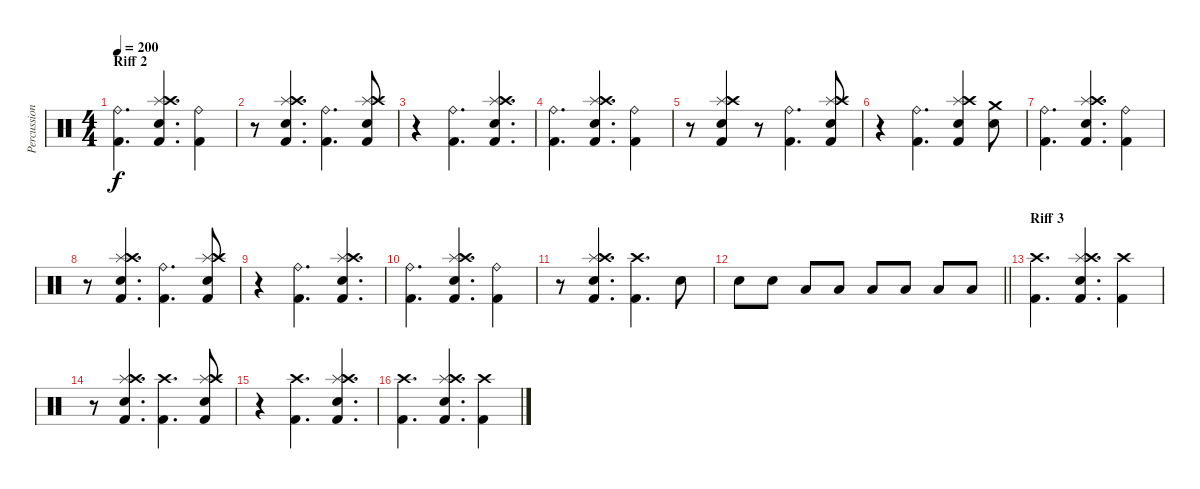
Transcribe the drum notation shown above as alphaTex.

\track ("Percussion" "Percussion") {instrument percussion}
\staff {score}
\articulation defaults
\ts (4 4)
\section ("" "Riff 2")
\tempo 200
\clef neutral
\ks c
("Ride (bell)" "Kick (hit) 2").4{d dy f} ("Splash (hit)" "Crash high (hit)" "Electric Snare (hit)" "Kick (hit) 2").4{d} ("Ride (bell)" "Kick (hit) 2").4 |
r.8 ("Splash (hit)" "Crash high (hit)" "Electric Snare (hit)" "Kick (hit) 2").4{d} ("Ride (bell)" "Kick (hit) 2").4{d} ("Splash (hit)" "Crash high (hit)" "Electric Snare (hit)" "Kick (hit) 2").8 |
r.4 ("Ride (bell)" "Kick (hit) 2").4{d} ("Splash (hit)" "Crash high (hit)" "Electric Snare (hit)" "Kick (hit) 2").4{d} |
("Ride (bell)" "Kick (hit) 2").4{d} ("Splash (hit)" "Crash high (hit)" "Electric Snare (hit)" "Kick (hit) 2").4{d} ("Ride (bell)" "Kick (hit) 2").4 |
r.8 ("Splash (hit)" "Crash high (hit)" "Electric Snare (hit)" "Kick (hit) 2").4 r.8 ("Ride (bell)" "Kick (hit) 2").4{d} ("Splash (hit)" "Crash high (hit)" "Electric Snare (hit)" "Kick (hit) 2").8 |
r.4 ("Ride (bell)" "Kick (hit) 2").4{d} ("Splash (hit)" "Crash high (hit)" "Electric Snare (hit)" "Kick (hit) 2").4 ("Crash medium (hit)" "Electric Snare (hit)").8 |
("Ride (bell)" "Kick (hit) 2").4{d} ("Splash (hit)" "Crash high (hit)" "Electric Snare (hit)" "Kick (hit) 2").4{d} ("Ride (bell)" "Kick (hit) 2").4 |
r.8 ("Splash (hit)" "Crash high (hit)" "Electric Snare (hit)" "Kick (hit) 2").4{d} ("Ride (bell)" "Kick (hit) 2").4{d} ("Splash (hit)" "Crash high (hit)" "Electric Snare (hit)" "Kick (hit) 2").8 |
r.4 ("Ride (bell)" "Kick (hit) 2").4{d} ("Splash (hit)" "Crash high (hit)" "Electric Snare (hit)" "Kick (hit) 2").4{d} |
("Ride (bell)" "Kick (hit) 2").4{d} ("Splash (hit)" "Crash high (hit)" "Electric Snare (hit)" "Kick (hit) 2").4{d} ("Ride (bell)" "Kick (hit) 2").4 |
r.8 ("Splash (hit)" "Crash high (hit)" "Electric Snare (hit)" "Kick (hit) 2").4{d} ("Crash high (hit)" "Kick (hit) 2").4{d} "Snare (hit) 2".8 |
\barLineRight lightlight "Snare (hit) 2".8 "Snare (hit) 2".8 "Low Tom (hit)".8 "Low Tom (hit)".8 "Low Tom (hit)".8 "Low Floor Tom (hit)".8 "Low Floor Tom (hit)".8 "Low Floor Tom (hit)".8
|
\section ("" "Riff 3")
("Crash high (hit)" "Kick (hit) 2").4{d} ("Splash (hit)" "Crash high (hit)" "Electric Snare (hit)" "Kick (hit) 2").4{d} ("Crash high (hit)" "Kick (hit) 2").4 |
r.8 ("Splash (hit)" "Crash high (hit)" "Electric Snare (hit)" "Kick (hit) 2").4{d} ("Crash high (hit)" "Kick (hit) 2").4{d} ("Splash (hit)" "Crash high (hit)" "Electric Snare (hit)" "Kick (hit) 2").8 |
r.4 ("Crash high (hit)" "Kick (hit) 2").4{d} ("Splash (hit)" "Crash high (hit)" "Electric Snare (hit)" "Kick (hit) 2").4{d} |
("Crash high (hit)" "Kick (hit) 2").4{d} ("Splash (hit)" "Crash high (hit)" "Electric Snare (hit)" "Kick (hit) 2").4{d} ("Crash high (hit)" "Kick (hit) 2").4
